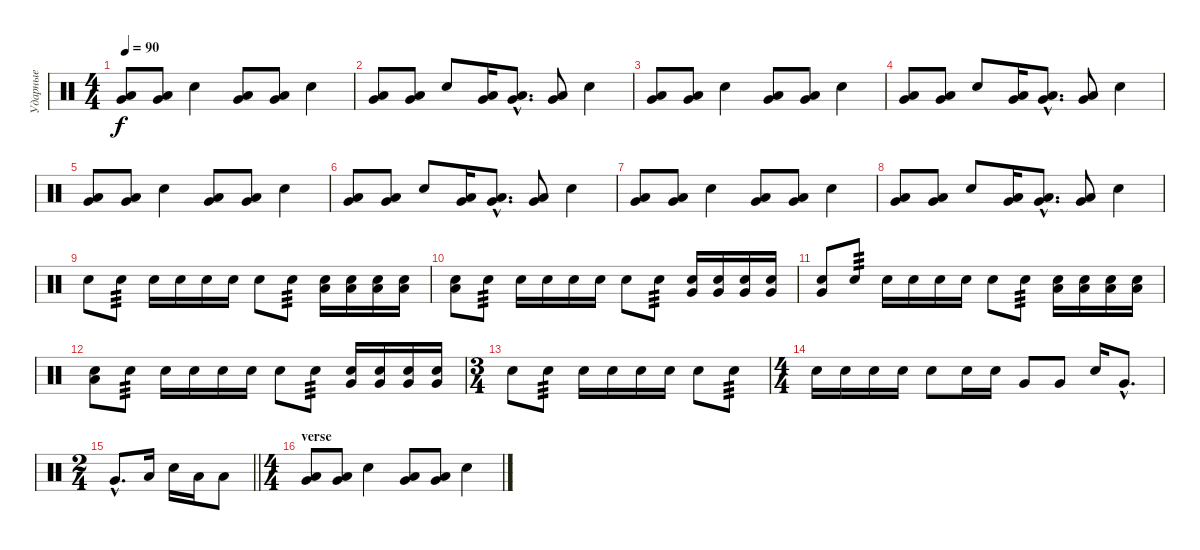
\track ("Ударные" "Ударные") {instrument percussion}
\staff {score}
\articulation defaults
\ts (4 4)
\tempo 90
\clef neutral
\ks c
("Low Floor Tom (hit)" "Very Low Tom (hit)").8{dy f} ("Low Floor Tom (hit)" "Very Low Tom (hit)").8 "Snare (hit) 2".4 ("Low Floor Tom (hit)" "Very Low Tom (hit)").8 ("Low Floor Tom (hit)" "Very Low Tom (hit)").8 "Snare (hit) 2".4 |
("Low Floor Tom (hit)" "Very Low Tom (hit)").8 ("Low Floor Tom (hit)" "Very Low Tom (hit)").8 "Snare (hit) 2".8 ("Low Floor Tom (hit)" "Very Low Tom (hit)").16 ("Low Floor Tom (hit)"{hac} "Very Low Tom (hit)"{hac}).8{d} ("Low Floor Tom (hit)" "Very Low Tom (hit)").8 "Snare (hit) 2".4 |
("Low Floor Tom (hit)" "Very Low Tom (hit)").8 ("Low Floor Tom (hit)" "Very Low Tom (hit)").8 "Snare (hit) 2".4 ("Low Floor Tom (hit)" "Very Low Tom (hit)").8 ("Low Floor Tom (hit)" "Very Low Tom (hit)").8 "Snare (hit) 2".4 |
("Low Floor Tom (hit)" "Very Low Tom (hit)").8 ("Low Floor Tom (hit)" "Very Low Tom (hit)").8 "Snare (hit) 2".8 ("Low Floor Tom (hit)" "Very Low Tom (hit)").16 ("Low Floor Tom (hit)"{hac} "Very Low Tom (hit)"{hac}).8{d} ("Low Floor Tom (hit)" "Very Low Tom (hit)").8 "Snare (hit) 2".4 |
("Low Floor Tom (hit)" "Very Low Tom (hit)").8 ("Low Floor Tom (hit)" "Very Low Tom (hit)").8 "Snare (hit) 2".4 ("Low Floor Tom (hit)" "Very Low Tom (hit)").8 ("Low Floor Tom (hit)" "Very Low Tom (hit)").8 "Snare (hit) 2".4 |
("Low Floor Tom (hit)" "Very Low Tom (hit)").8 ("Low Floor Tom (hit)" "Very Low Tom (hit)").8 "Snare (hit) 2".8 ("Low Floor Tom (hit)" "Very Low Tom (hit)").16 ("Low Floor Tom (hit)"{hac} "Very Low Tom (hit)"{hac}).8{d} ("Low Floor Tom (hit)" "Very Low Tom (hit)").8 "Snare (hit) 2".4 |
("Low Floor Tom (hit)" "Very Low Tom (hit)").8 ("Low Floor Tom (hit)" "Very Low Tom (hit)").8 "Snare (hit) 2".4 ("Low Floor Tom (hit)" "Very Low Tom (hit)").8 ("Low Floor Tom (hit)" "Very Low Tom (hit)").8 "Snare (hit) 2".4 |
("Low Floor Tom (hit)" "Very Low Tom (hit)").8 ("Low Floor Tom (hit)" "Very Low Tom (hit)").8 "Snare (hit) 2".8 ("Low Floor Tom (hit)" "Very Low Tom (hit)").16 ("Low Floor Tom (hit)"{hac} "Very Low Tom (hit)"{hac}).8{d} ("Low Floor Tom (hit)" "Very Low Tom (hit)").8 "Snare (hit) 2".4 |
"Snare (hit) 2".8 "Snare (hit) 2".8{tp 3} "Snare (hit) 2".16 "Snare (hit) 2".16 "Snare (hit) 2".16 "Snare (hit) 2".16 "Snare (hit) 2".8 "Snare (hit) 2".8{tp 3} ("Snare (hit) 2" "Low Floor Tom (hit)").16 ("Snare (hit) 2" "Low Floor Tom (hit)").16 ("Snare (hit) 2" "Low Floor Tom (hit)").16 ("Snare (hit) 2" "Low Floor Tom (hit)").16 |
("Snare (hit) 2" "Low Floor Tom (hit)").8 "Snare (hit) 2".8{tp 3} "Snare (hit) 2".16 "Snare (hit) 2".16 "Snare (hit) 2".16 "Snare (hit) 2".16 "Snare (hit) 2".8 "Snare (hit) 2".8{tp 3} ("Snare (hit) 2" "Very Low Tom (hit)").16 ("Snare (hit) 2" "Very Low Tom (hit)").16 ("Snare (hit) 2" "Very Low Tom (hit)").16 ("Snare (hit) 2" "Very Low Tom (hit)").16 |
("Snare (hit) 2" "Very Low Tom (hit)").8 "Snare (hit) 2".8{tp 3} "Snare (hit) 2".16 "Snare (hit) 2".16 "Snare (hit) 2".16 "Snare (hit) 2".16 "Snare (hit) 2".8 "Snare (hit) 2".8{tp 3} ("Snare (hit) 2" "Low Floor Tom (hit)").16 ("Snare (hit) 2" "Low Floor Tom (hit)").16 ("Snare (hit) 2" "Low Floor Tom (hit)").16 ("Snare (hit) 2" "Low Floor Tom (hit)").16 |
("Snare (hit) 2" "Low Floor Tom (hit)").8 "Snare (hit) 2".8{tp 3} "Snare (hit) 2".16 "Snare (hit) 2".16 "Snare (hit) 2".16 "Snare (hit) 2".16 "Snare (hit) 2".8 "Snare (hit) 2".8{tp 3} ("Snare (hit) 2" "Very Low Tom (hit)").16 ("Snare (hit) 2" "Very Low Tom (hit)").16 ("Snare (hit) 2" "Very Low Tom (hit)").16 ("Snare (hit) 2" "Very Low Tom (hit)").16 |
\ts (3 4)
"Snare (hit) 2".8 "Snare (hit) 2".8{tp 3} "Snare (hit) 2".16 "Snare (hit) 2".16 "Snare (hit) 2".16 "Snare (hit) 2".16 "Snare (hit) 2".8 "Snare (hit) 2".8{tp 3} |
\ts (4 4)
"Snare (hit) 2".16 "Snare (hit) 2".16 "Snare (hit) 2".16 "Snare (hit) 2".16 "Snare (hit) 2".8 "Snare (hit) 2".16 "Snare (hit) 2".16 "Very Low Tom (hit)".8 "Very Low Tom (hit)".8 "Snare (hit) 2".16 "Very Low Tom (hit)"{hac}.8{d} |
\ts (2 4)
\barLineRight lightlight "Very Low Tom (hit)"{hac}.8{d} "Low Floor Tom (hit)".16 "Snare (hit) 2".16 "Low Floor Tom (hit)".16 "Low Floor Tom (hit)".8
|
\ts (4 4)
\section ("" "verse")
("Low Floor Tom (hit)" "Very Low Tom (hit)").8 ("Low Floor Tom (hit)" "Very Low Tom (hit)").8 "Snare (hit) 2".4 ("Low Floor Tom (hit)" "Very Low Tom (hit)").8 ("Low Floor Tom (hit)" "Very Low Tom (hit)").8 "Snare (hit) 2".4
